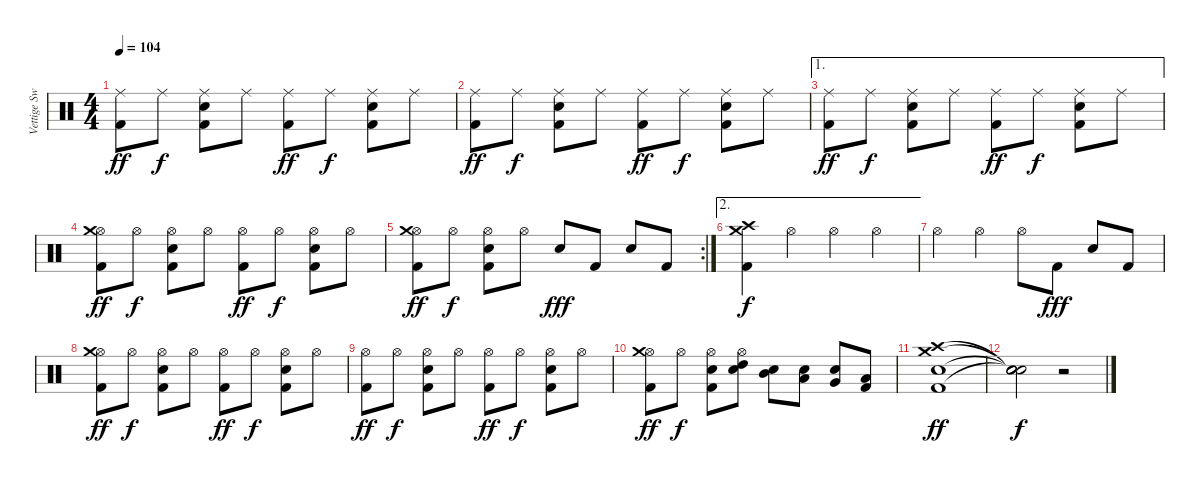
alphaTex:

\track ("Vettige Swa" "Vettige Sw") {instrument percussion}
\staff {score}
\articulation defaults
\ts (4 4)
\tempo 104
\clef neutral
\ks c
("Ride (middle)" "Kick (hit) 2").8{dy ff} "Ride (middle)".8{dy f} ("Ride (middle)" "Electric Snare (hit)" "Kick (hit) 2").8 "Ride (middle)".8 ("Ride (middle)" "Kick (hit) 2").8{dy ff} "Ride (middle)".8{dy f} ("Ride (middle)" "Electric Snare (hit)" "Kick (hit) 2").8 "Ride (middle)".8 |
("Ride (middle)" "Kick (hit) 2").8{dy ff} "Ride (middle)".8{dy f} ("Ride (middle)" "Electric Snare (hit)" "Kick (hit) 2").8 "Ride (middle)".8 ("Ride (middle)" "Kick (hit) 2").8{dy ff} "Ride (middle)".8{dy f} ("Ride (middle)" "Electric Snare (hit)" "Kick (hit) 2").8 "Ride (middle)".8 |
\ae 1
("Ride (middle)" "Kick (hit) 2").8{dy ff} "Ride (middle)".8{dy f} ("Ride (middle)" "Electric Snare (hit)" "Kick (hit) 2").8 "Ride (middle)".8 ("Ride (middle)" "Kick (hit) 2").8{dy ff} "Ride (middle)".8{dy f} ("Ride (middle)" "Electric Snare (hit)" "Kick (hit) 2").8 "Ride (middle)".8 |
("Hi-Hat (open)" "Kick (hit) 2" "Crash medium (hit)").8{dy ff} "Hi-Hat (open)".8{dy f} ("Hi-Hat (open)" "Electric Snare (hit)" "Kick (hit) 2").8 "Hi-Hat (open)".8 ("Hi-Hat (open)" "Kick (hit) 2").8{dy ff} "Hi-Hat (open)".8{dy f} ("Hi-Hat (open)" "Electric Snare (hit)" "Kick (hit) 2").8 "Hi-Hat (open)".8 |
\rc 2
("Hi-Hat (open)" "Crash medium (hit)" "Kick (hit) 2").8{dy ff} "Hi-Hat (open)".8{dy f} ("Hi-Hat (open)" "Electric Snare (hit)" "Kick (hit) 2").8 "Hi-Hat (open)".8 "Electric Snare (hit)".8{dy fff} "Kick (hit) 2".8 "Electric Snare (hit)".8 "Kick (hit) 2".8 |
\ae 2
("Crash medium (hit)" "Crash high (hit)" "Kick (hit) 2").4{dy f} "Hi-Hat (open)".4 "Hi-Hat (open)".4 "Hi-Hat (open)".4 |
"Hi-Hat (open)".4 "Hi-Hat (open)".4 "Hi-Hat (open)".8 "Kick (hit) 2".8{dy fff} "Electric Snare (hit)".8 "Kick (hit) 2".8 |
("Hi-Hat (open)" "Crash medium (hit)" "Kick (hit) 2").8{dy ff} "Hi-Hat (open)".8{dy f} ("Hi-Hat (open)" "Electric Snare (hit)" "Kick (hit) 2").8 "Hi-Hat (open)".8 ("Hi-Hat (open)" "Kick (hit) 2").8{dy ff} "Hi-Hat (open)".8{dy f} ("Hi-Hat (open)" "Electric Snare (hit)" "Kick (hit) 2").8 "Hi-Hat (open)".8 |
("Hi-Hat (open)" "Kick (hit) 2").8{dy ff} "Hi-Hat (open)".8{dy f} ("Hi-Hat (open)" "Electric Snare (hit)" "Kick (hit) 2").8 "Hi-Hat (open)".8 ("Hi-Hat (open)" "Kick (hit) 2").8{dy ff} "Hi-Hat (open)".8{dy f} ("Hi-Hat (open)" "Electric Snare (hit)" "Kick (hit) 2").8 "Hi-Hat (open)".8 |
("Hi-Hat (open)" "Kick (hit) 2" "Crash medium (hit)").8{dy ff} "Hi-Hat (open)".8{dy f} ("Hi-Hat (open)" "Electric Snare (hit)" "Kick (hit) 2").8 ("Hi-Hat (open)" "Electric Snare (hit)" "High Tom (hit)").8 ("Electric Snare (hit)" "Mid Tom (hit)").8 ("Electric Snare (hit)" "Low Tom (hit)").8 ("Electric Snare (hit)" "Very Low Tom (hit)").8 ("Kick (hit) 2" "Low Floor Tom (hit)").8 |
("Crash medium (hit)" "Crash high (hit)" "Electric Snare (hit)" "Kick (hit) 2").1{dy ff} |
("Snare (hit)"{t} "Snare (hit)"{t} "Snare (hit)"{t} "Snare (hit)"{t}).2{dy f} r.2
